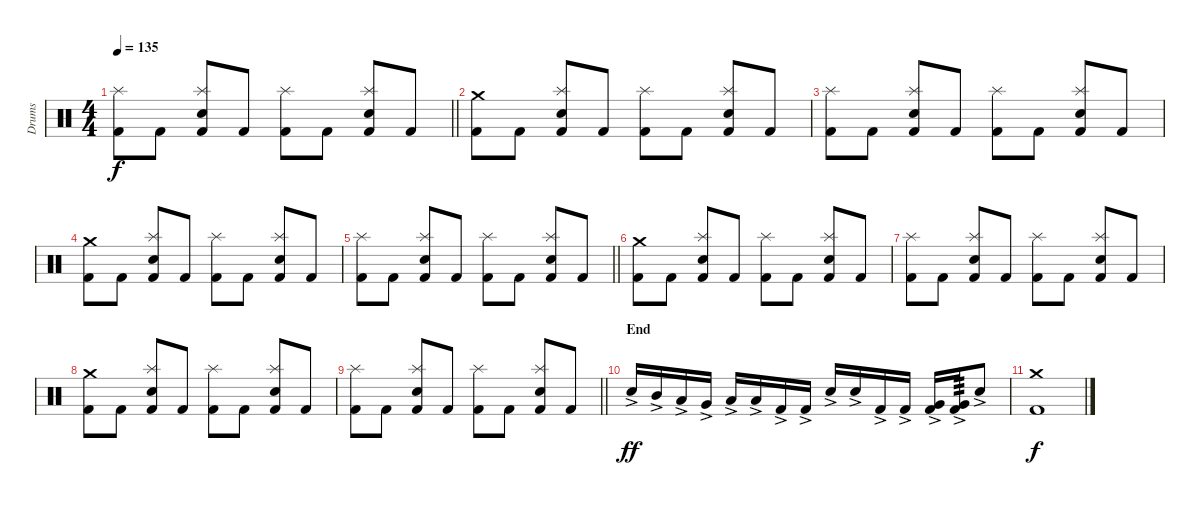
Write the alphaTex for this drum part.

\track ("Drums" "Drums") {instrument percussion}
\staff {score}
\articulation defaults
\ts (4 4)
\tempo 135
\clef neutral
\barLineRight lightlight
\ks c
("Kick (hit) 2" "Splash (hit)").8{dy f} "Kick (hit) 2".8 ("Kick (hit) 2" "Snare (hit) 2" "Splash (hit)").8 "Kick (hit) 2".8 ("Kick (hit) 2" "Splash (hit)").8 "Kick (hit) 2".8 ("Kick (hit) 2" "Snare (hit) 2" "Splash (hit)").8 "Kick (hit) 2".8 |
\section ("" "")
("Kick (hit) 2" "Crash medium (hit)").8 "Kick (hit) 2".8 ("Kick (hit) 2" "Snare (hit) 2" "Splash (hit)").8 "Kick (hit) 2".8 ("Kick (hit) 2" "Splash (hit)").8 "Kick (hit) 2".8 ("Kick (hit) 2" "Snare (hit) 2" "Splash (hit)").8 "Kick (hit) 2".8 |
("Kick (hit) 2" "Splash (hit)").8 "Kick (hit) 2".8 ("Kick (hit) 2" "Snare (hit) 2" "Splash (hit)").8 "Kick (hit) 2".8 ("Kick (hit) 2" "Splash (hit)").8 "Kick (hit) 2".8 ("Kick (hit) 2" "Snare (hit) 2" "Splash (hit)").8 "Kick (hit) 2".8 |
("Kick (hit) 2" "Crash medium (hit)").8 "Kick (hit) 2".8 ("Kick (hit) 2" "Snare (hit) 2" "Splash (hit)").8 "Kick (hit) 2".8 ("Kick (hit) 2" "Splash (hit)").8 "Kick (hit) 2".8 ("Kick (hit) 2" "Snare (hit) 2" "Splash (hit)").8 "Kick (hit) 2".8 |
\barLineRight lightlight
("Kick (hit) 2" "Splash (hit)").8 "Kick (hit) 2".8 ("Kick (hit) 2" "Snare (hit) 2" "Splash (hit)").8 "Kick (hit) 2".8 ("Kick (hit) 2" "Splash (hit)").8 "Kick (hit) 2".8 ("Kick (hit) 2" "Snare (hit) 2" "Splash (hit)").8 "Kick (hit) 2".8 |
\section ("" "")
("Kick (hit) 2" "Crash medium (hit)").8 "Kick (hit) 2".8 ("Kick (hit) 2" "Snare (hit) 2" "Splash (hit)").8 "Kick (hit) 2".8 ("Kick (hit) 2" "Splash (hit)").8 "Kick (hit) 2".8 ("Kick (hit) 2" "Snare (hit) 2" "Splash (hit)").8 "Kick (hit) 2".8 |
("Kick (hit) 2" "Splash (hit)").8 "Kick (hit) 2".8 ("Kick (hit) 2" "Snare (hit) 2" "Splash (hit)").8 "Kick (hit) 2".8 ("Kick (hit) 2" "Splash (hit)").8 "Kick (hit) 2".8 ("Kick (hit) 2" "Snare (hit) 2" "Splash (hit)").8 "Kick (hit) 2".8 |
("Kick (hit) 2" "Crash medium (hit)").8 "Kick (hit) 2".8 ("Kick (hit) 2" "Snare (hit) 2" "Splash (hit)").8 "Kick (hit) 2".8 ("Kick (hit) 2" "Splash (hit)").8 "Kick (hit) 2".8 ("Kick (hit) 2" "Snare (hit) 2" "Splash (hit)").8 "Kick (hit) 2".8 |
\barLineRight lightlight
("Kick (hit) 2" "Splash (hit)").8 "Kick (hit) 2".8 ("Kick (hit) 2" "Snare (hit) 2" "Splash (hit)").8 "Kick (hit) 2".8 ("Kick (hit) 2" "Splash (hit)").8 "Kick (hit) 2".8 ("Kick (hit) 2" "Snare (hit) 2" "Splash (hit)").8 "Kick (hit) 2".8 |
\section ("" "End")
"Snare (hit) 2"{ac}.16{dy ff} "Mid Tom (hit)"{ac}.16 "Low Tom (hit)"{ac}.16 "Very Low Tom (hit)"{ac}.16 "Low Floor Tom (hit)"{ac}.16 "Low Floor Tom (hit)"{ac}.16 "Kick (hit) 2"{ac}.16 "Kick (hit) 2"{ac}.16 "Snare (hit) 2"{ac}.16 "Snare (hit) 2"{ac}.16 "Kick (hit) 2"{ac}.16 "Kick (hit) 2"{ac}.16 ("Kick (hit) 2"{ac} "Very Low Tom (hit)"{ac}).16 ("Kick (hit) 2"{ac} "Very Low Tom (hit)"{ac}).16{tp 3} "Snare (hit) 2"{ac}.8 |
("Kick (hit) 2" "Crash medium (hit)").1{dy f}
